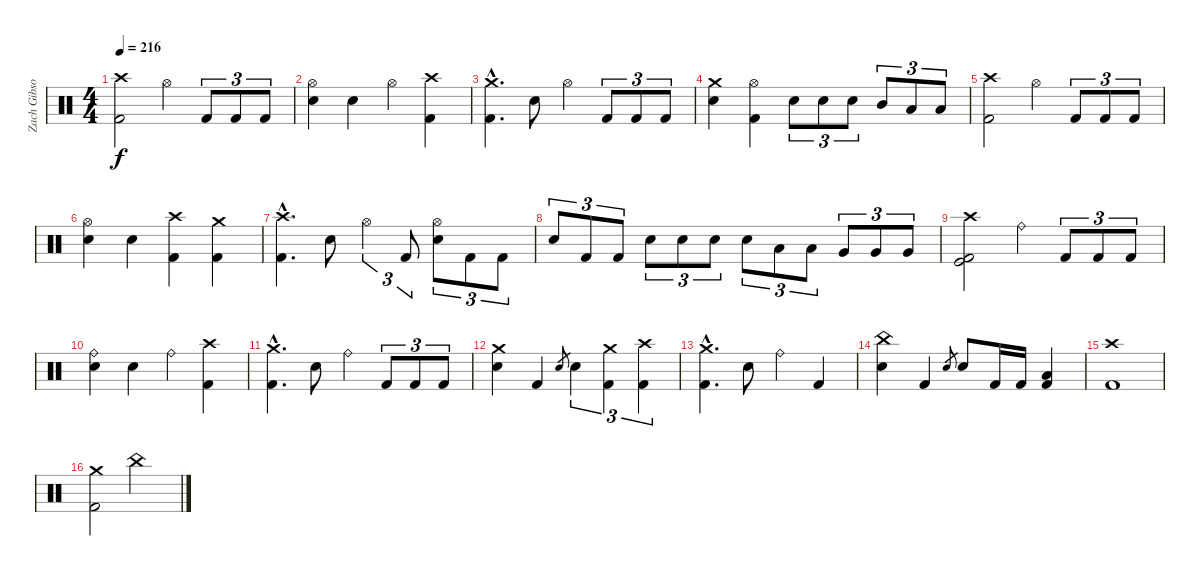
\track ("Zach Gibson (Ex-Drums)" "Zach Gibso") {instrument percussion}
\staff {score}
\articulation defaults
\ts (4 4)
\tempo 216
\clef neutral
\ks c
("Crash high (hit)" "Kick (hit) 2").2{dy f} "Hi-Hat (open)".4 "Kick (hit) 2".8{tu (3 2)} "Kick (hit) 2".8{tu (3 2)} "Kick (hit) 2".8{tu (3 2)} |
("Hi-Hat (open)" "Snare (hit) 2").4 "Snare (hit) 2".4 "Hi-Hat (open)".4 ("Crash high (hit)" "Kick (hit) 2").4 |
("Crash medium (hit)"{hac} "Kick (hit) 2"{hac}).4{d} "Snare (hit) 2".8 "Hi-Hat (open)".4 "Kick (hit) 2".8{tu (3 2)} "Kick (hit) 2".8{tu (3 2)} "Kick (hit) 2".8{tu (3 2)} |
("Crash medium (hit)" "Snare (hit) 2").4 ("Hi-Hat (open)" "Kick (hit) 2").4 "Snare (hit) 2".8{tu (3 2)} "Snare (hit) 2".8{tu (3 2)} "Snare (hit) 2".8{tu (3 2)} "Mid Tom (hit)".8{tu (3 2)} "Low Tom (hit)".8{tu (3 2)} "Low Floor Tom (hit)".8{tu (3 2)} |
("Crash high (hit)" "Kick (hit) 2").2 "Hi-Hat (open)".4 "Kick (hit) 2".8{tu (3 2)} "Kick (hit) 2".8{tu (3 2)} "Kick (hit) 2".8{tu (3 2)} |
("Hi-Hat (open)" "Snare (hit) 2").4 "Snare (hit) 2".4 ("Crash high (hit)" "Kick (hit) 2").4 ("Crash medium (hit)" "Kick (hit) 2").4 |
("Crash high (hit)"{hac} "Kick (hit) 2"{hac}).4{d} "Snare (hit) 2".8 "Hi-Hat (open)".4{tu (3 2)} "Kick (hit) 2".8{tu (3 2)} ("Hi-Hat (open)" "Snare (hit) 2").8{tu (3 2)} "Kick (hit) 2".8{tu (3 2)} "Kick (hit) 2".8{tu (3 2)} |
"Snare (hit) 2".8{tu (3 2)} "Kick (hit) 2".8{tu (3 2)} "Kick (hit) 2".8{tu (3 2)} "Snare (hit) 2".8{tu (3 2)} "Snare (hit) 2".8{tu (3 2)} "Snare (hit) 2".8{tu (3 2)} "Snare (hit) 2".8{tu (3 2)} "Low Tom (hit)".8{tu (3 2)} "Low Tom (hit)".8{tu (3 2)} "Very Low Tom (hit)".8{tu (3 2)} "Very Low Tom (hit)".8{tu (3 2)} "Very Low Tom (hit)".8{tu (3 2)} |
("Kick (hit)" "Crash high (hit)" "Kick (hit) 2").2 "Ride (bell)".4 "Kick (hit) 2".8{tu (3 2)} "Kick (hit) 2".8{tu (3 2)} "Kick (hit) 2".8{tu (3 2)} |
("Ride (bell)" "Snare (hit) 2").4 "Snare (hit) 2".4 "Ride (bell)".4 ("Crash high (hit)" "Kick (hit) 2").4 |
("Crash medium (hit)"{hac} "Kick (hit) 2"{hac}).4{d} "Snare (hit) 2".8 "Ride (bell)".4 "Kick (hit) 2".8{tu (3 2)} "Kick (hit) 2".8{tu (3 2)} "Kick (hit) 2".8{tu (3 2)} |
("Crash medium (hit)" "Snare (hit) 2").4 "Kick (hit) 2".4 "Snare (hit) 2".8{gr} "Snare (hit) 2".4{tu (3 2)} ("Crash medium (hit)" "Kick (hit) 2").4{tu (3 2)} ("Crash high (hit)" "Kick (hit) 2").4{tu (3 2)} |
("Crash medium (hit)"{hac} "Kick (hit) 2"{hac}).4{d} "Snare (hit) 2".8 "Ride (bell)".4 "Kick (hit) 2".4 |
("China (hit)" "Snare (hit) 2").4 "Kick (hit) 2".4 "Snare (hit) 2".8{gr} "Snare (hit) 2".8 "Kick (hit) 2".16 "Kick (hit) 2".16 ("Low Floor Tom (hit)" "Kick (hit) 2").4 |
("Crash high (hit)" "Kick (hit) 2").1 |
("Crash medium (hit)" "Kick (hit) 2").2 "China (hit)".2
